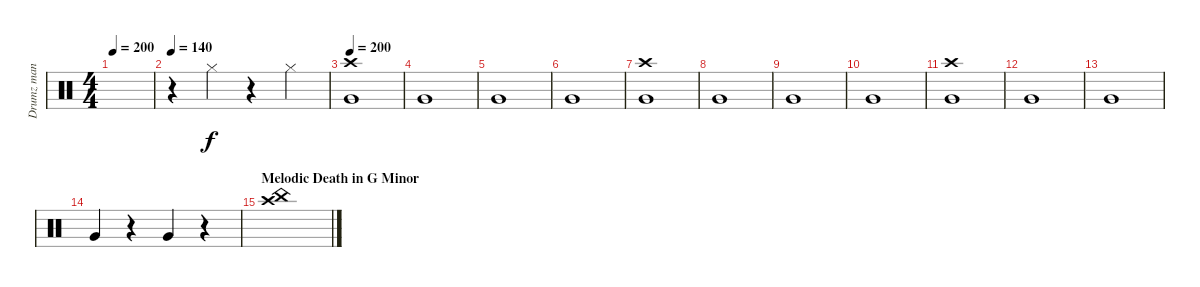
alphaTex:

\track ("Drumz man" "Drumz man") {instrument percussion}
\staff {score}
\articulation defaults
\ts (4 4)
\tempo 200
\clef neutral
\ks c
|
\tempo 140
r.4 "Hi-Hat (closed)".4 r.4 "Hi-Hat (closed)".4 |
\tempo 200
("Crash high (hit)" "Very Low Tom (hit)").1 |
"Very Low Tom (hit)".1 |
"Very Low Tom (hit)".1 |
"Very Low Tom (hit)".1 |
("Crash high (hit)" "Very Low Tom (hit)").1 |
"Very Low Tom (hit)".1 |
"Very Low Tom (hit)".1 |
"Very Low Tom (hit)".1 |
("Crash high (hit)" "Very Low Tom (hit)").1 |
"Very Low Tom (hit)".1 |
"Very Low Tom (hit)".1 |
"Very Low Tom (hit)".4 r.4 "Very Low Tom (hit)".4 r.4 |
\section ("" "Melodic Death in G Minor")
("Crash high (hit)" "China (hit)").1
